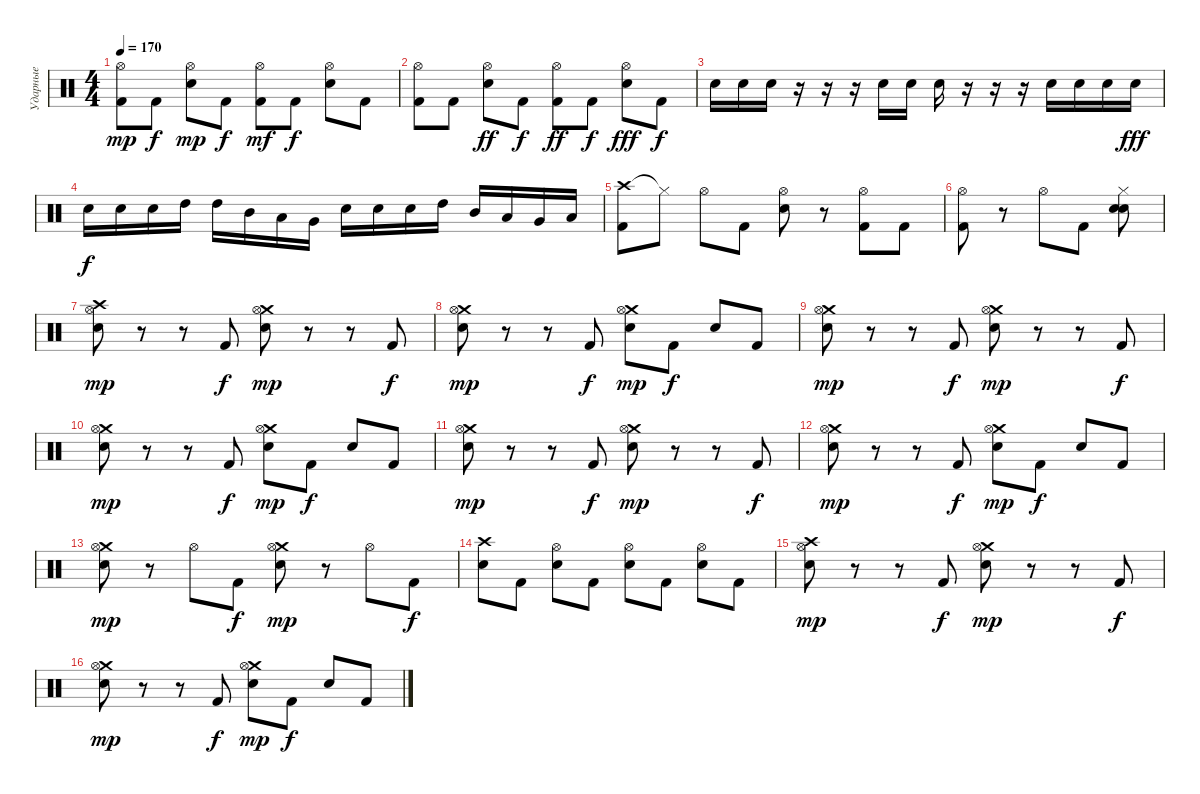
\track ("Ударные" "Ударные") {instrument percussion}
\staff {score}
\articulation defaults
\ts (4 4)
\tempo 170
\clef neutral
\ks c
("Hi-Hat (open)" "Kick (hit) 2").8{dy mp} "Kick (hit) 2".8{dy f} ("Hi-Hat (open)" "Snare (hit) 2").8{dy mp} "Kick (hit) 2".8{dy f} ("Hi-Hat (open)" "Kick (hit) 2").8{dy mf} "Kick (hit) 2".8{dy f} ("Hi-Hat (open)" "Snare (hit) 2").8 "Kick (hit) 2".8 |
("Hi-Hat (open)" "Kick (hit) 2").8 "Kick (hit) 2".8 ("Hi-Hat (open)" "Snare (hit) 2").8{dy ff} "Kick (hit) 2".8{dy f} ("Hi-Hat (open)" "Kick (hit) 2").8{dy ff} "Kick (hit) 2".8{dy f} ("Hi-Hat (open)" "Snare (hit) 2").8{dy fff} "Kick (hit) 2".8{dy f} |
"Electric Snare (hit)".16 "Electric Snare (hit)".16 "Electric Snare (hit)".16 r.16 r.16 r.16 "Electric Snare (hit)".16 "Electric Snare (hit)".16 "Electric Snare (hit)".16 r.16 r.16 r.16 "Electric Snare (hit)".16 "Electric Snare (hit)".16 "Electric Snare (hit)".16 "Snare (hit)".16{dy fff} |
"Electric Snare (hit)".16{dy f} "Electric Snare (hit)".16 "Electric Snare (hit)".16 "High Tom (hit)".16 "High Tom (hit)".16 "Mid Tom (hit)".16 "Low Tom (hit)".16 "Very Low Tom (hit)".16 "Electric Snare (hit)".16 "Electric Snare (hit)".16 "Electric Snare (hit)".16 "High Tom (hit)".16 "Mid Tom (hit)".16 "Low Tom (hit)".16 "Very Low Tom (hit)".16 "Low Floor Tom (hit)".16 |
("Crash high (hit)" "Kick (hit) 2").8 "Hi-Hat (closed)"{t}.8 "Hi-Hat (open)".8 "Kick (hit) 2".8 ("Hi-Hat (open)" "Electric Snare (hit)").8 r.8 ("Hi-Hat (open)" "Kick (hit) 2").8 "Kick (hit) 2".8 |
("Hi-Hat (open)" "Kick (hit) 2").8 r.8 "Hi-Hat (open)".8 "Kick (hit) 2".8 ("Hi-Hat (closed)" "Snare (hit) 2" "Electric Snare (hit)").8 |
("Crash high (hit)" "Hi-Hat (open)" "Snare (hit) 2").8{dy mp} r.8 r.8 "Kick (hit) 2".8{dy f} ("Crash medium (hit)" "Hi-Hat (open)" "Electric Snare (hit)").8{dy mp} r.8 r.8 "Kick (hit) 2".8{dy f} |
("Crash medium (hit)" "Hi-Hat (open)" "Snare (hit) 2").8{dy mp} r.8 r.8 "Kick (hit) 2".8{dy f} ("Crash medium (hit)" "Hi-Hat (open)" "Electric Snare (hit)").8{dy mp} "Kick (hit) 2".8{dy f} "Electric Snare (hit)".8 "Kick (hit) 2".8 |
("Crash medium (hit)" "Hi-Hat (open)" "Snare (hit) 2").8{dy mp} r.8 r.8 "Kick (hit) 2".8{dy f} ("Crash medium (hit)" "Hi-Hat (open)" "Electric Snare (hit)").8{dy mp} r.8 r.8 "Kick (hit) 2".8{dy f} |
("Crash medium (hit)" "Hi-Hat (open)" "Snare (hit) 2").8{dy mp} r.8 r.8 "Kick (hit) 2".8{dy f} ("Crash medium (hit)" "Hi-Hat (open)" "Electric Snare (hit)").8{dy mp} "Kick (hit) 2".8{dy f} "Electric Snare (hit)".8 "Kick (hit) 2".8 |
("Crash medium (hit)" "Hi-Hat (open)" "Snare (hit) 2").8{dy mp} r.8 r.8 "Kick (hit) 2".8{dy f} ("Crash medium (hit)" "Hi-Hat (open)" "Electric Snare (hit)").8{dy mp} r.8 r.8 "Kick (hit) 2".8{dy f} |
("Crash medium (hit)" "Hi-Hat (open)" "Snare (hit) 2").8{dy mp} r.8 r.8 "Kick (hit) 2".8{dy f} ("Crash medium (hit)" "Hi-Hat (open)" "Electric Snare (hit)").8{dy mp} "Kick (hit) 2".8{dy f} "Electric Snare (hit)".8 "Kick (hit) 2".8 |
("Crash medium (hit)" "Hi-Hat (open)" "Snare (hit) 2").8{dy mp} r.8 "Hi-Hat (open)".8 "Kick (hit) 2".8{dy f} ("Crash medium (hit)" "Hi-Hat (open)" "Electric Snare (hit)").8{dy mp} r.8 "Hi-Hat (open)".8 "Kick (hit) 2".8{dy f} |
("Crash high (hit)" "Electric Snare (hit)").8 "Kick (hit) 2".8 ("Hi-Hat (open)" "Electric Snare (hit)").8 "Kick (hit) 2".8 ("Hi-Hat (open)" "Electric Snare (hit)").8 "Kick (hit) 2".8 ("Hi-Hat (open)" "Electric Snare (hit)").8 "Kick (hit) 2".8 |
("Crash high (hit)" "Hi-Hat (open)" "Snare (hit) 2").8{dy mp} r.8 r.8 "Kick (hit) 2".8{dy f} ("Crash medium (hit)" "Hi-Hat (open)" "Electric Snare (hit)").8{dy mp} r.8 r.8 "Kick (hit) 2".8{dy f} |
("Crash medium (hit)" "Hi-Hat (open)" "Snare (hit) 2").8{dy mp} r.8 r.8 "Kick (hit) 2".8{dy f} ("Crash medium (hit)" "Hi-Hat (open)" "Electric Snare (hit)").8{dy mp} "Kick (hit) 2".8{dy f} "Electric Snare (hit)".8 "Kick (hit) 2".8
